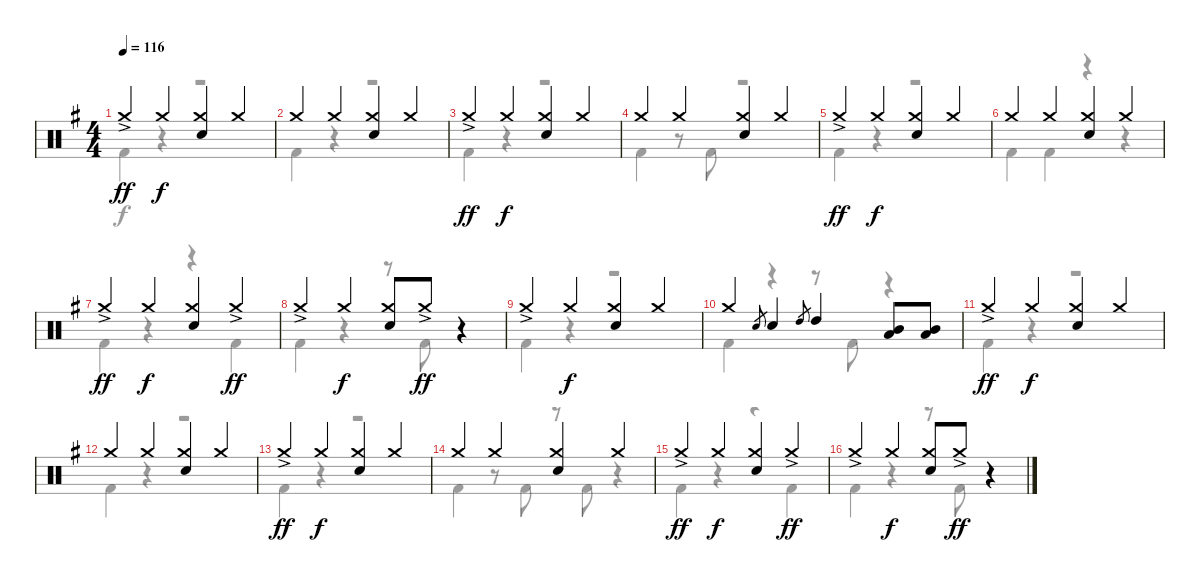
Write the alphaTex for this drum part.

\track "" {instrument percussion}
\staff {score}
\articulation defaults
\voice
\ts (4 4)
\tempo 116
\clef neutral
\ks g "Crash medium (hit)"{ac}.4{dy ff} "Crash medium (hit)".4{dy f}
("Electric Snare (hit)" "Crash medium (hit)").4 "Crash medium (hit)".4 |
"Crash medium (hit)".4 "Crash medium (hit)".4 ("Electric Snare (hit)" "Crash medium (hit)").4 "Crash medium (hit)".4 |
"Crash medium (hit)"{ac}.4{dy ff} "Crash medium (hit)".4{dy f} ("Electric Snare (hit)" "Crash medium (hit)").4 "Crash medium (hit)".4 |
"Crash medium (hit)".4 "Crash medium (hit)".4 ("Electric Snare (hit)" "Crash medium (hit)").4 "Crash medium (hit)".4 |
"Crash medium (hit)"{ac}.4{dy ff} "Crash medium (hit)".4{dy f} ("Electric Snare (hit)" "Crash medium (hit)").4 "Crash medium (hit)".4 |
"Crash medium (hit)".4 "Crash medium (hit)".4 ("Electric Snare (hit)" "Crash medium (hit)").4 "Crash medium (hit)".4 |
"Crash medium (hit)"{ac}.4{dy ff} "Crash medium (hit)".4{dy f} ("Electric Snare (hit)" "Crash medium (hit)").4 "Crash medium (hit)"{ac}.4{dy ff} |
"Crash medium (hit)"{ac}.4 "Crash medium (hit)".4{dy f} ("Electric Snare (hit)" "Crash medium (hit)").8 "Crash medium (hit)"{ac}.8{dy ff} r.4 |
"Crash medium (hit)"{ac}.4 "Crash medium (hit)".4{dy f} ("Electric Snare (hit)" "Crash medium (hit)").4 "Crash medium (hit)".4 |
"Crash medium (hit)".4 "Electric Snare (hit)".8{gr} "Electric Snare (hit)".4 "High Tom (hit)".8{gr} "High Tom (hit)".4 ("Mid Tom (hit)" "Low Tom (hit)").8 ("Mid Tom (hit)" "Low Tom (hit)").8 |
"Crash medium (hit)"{ac}.4{dy ff} "Crash medium (hit)".4{dy f} ("Electric Snare (hit)" "Crash medium (hit)").4 "Crash medium (hit)".4 |
"Crash medium (hit)".4 "Crash medium (hit)".4 ("Electric Snare (hit)" "Crash medium (hit)").4 "Crash medium (hit)".4 |
"Crash medium (hit)"{ac}.4{dy ff} "Crash medium (hit)".4{dy f} ("Electric Snare (hit)" "Crash medium (hit)").4 "Crash medium (hit)".4 |
"Crash medium (hit)".4 "Crash medium (hit)".4 ("Electric Snare (hit)" "Crash medium (hit)").4 "Crash medium (hit)".4 |
"Crash medium (hit)"{ac}.4{dy ff} "Crash medium (hit)".4{dy f} ("Electric Snare (hit)" "Crash medium (hit)").4 "Crash medium (hit)"{ac}.4{dy ff} |
"Crash medium (hit)"{ac}.4 "Crash medium (hit)".4{dy f} ("Electric Snare (hit)" "Crash medium (hit)").8 "Crash medium (hit)"{ac}.8{dy ff} r.4
\voice
\clef neutral
\ottava regular
\simile none
\ks g "Kick (hit) 2".4{dy f}
r.4 r.2 |
"Kick (hit) 2".4 r.4 r.2 |
"Kick (hit) 2".4 r.4 r.2 |
"Kick (hit) 2".4 r.8 "Kick (hit) 2".8 r.2 |
"Kick (hit) 2".4 r.4 r.2 |
"Kick (hit) 2".4 "Kick (hit) 2".4 r.4 r.4 |
"Kick (hit) 2".4 r.4 r.4 "Kick (hit) 2".4 |
"Kick (hit) 2".4 r.4 r.8 "Kick (hit) 2".8 r.4 |
"Kick (hit) 2".4 r.4 r.2 |
"Kick (hit) 2".4 r.4 r.8 "Kick (hit) 2".8 r.4 |
"Kick (hit) 2".4 r.4 r.2 |
"Kick (hit) 2".4 r.4 r.2 |
"Kick (hit) 2".4 r.4 r.2 |
"Kick (hit) 2".4 r.8 "Kick (hit) 2".8 r.8 "Kick (hit) 2".8 r.4 |
"Kick (hit) 2".4 r.4 r.4 "Kick (hit) 2".4 |
"Kick (hit) 2".4 r.4 r.8 "Kick (hit) 2".8 r.4
